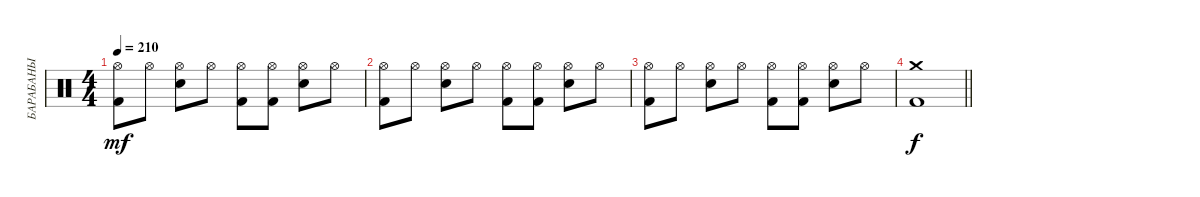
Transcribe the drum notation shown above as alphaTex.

\track ("БАРАБАНЫ" "БАРАБАНЫ") {instrument percussion}
\staff {score}
\articulation defaults
\ts (4 4)
\tempo 210
\clef neutral
\ks c
("Hi-Hat (open)" "Kick (hit) 2").8{dy mf} "Hi-Hat (open)".8 ("Hi-Hat (open)" "Snare (hit) 2").8 "Hi-Hat (open)".8 ("Hi-Hat (open)" "Kick (hit) 2").8 ("Hi-Hat (open)" "Kick (hit) 2").8 ("Hi-Hat (open)" "Snare (hit) 2").8 "Hi-Hat (open)".8 |
("Hi-Hat (open)" "Kick (hit) 2").8 "Hi-Hat (open)".8 ("Hi-Hat (open)" "Snare (hit) 2").8 "Hi-Hat (open)".8 ("Hi-Hat (open)" "Kick (hit) 2").8 ("Hi-Hat (open)" "Kick (hit) 2").8 ("Hi-Hat (open)" "Snare (hit) 2").8 "Hi-Hat (open)".8 |
("Hi-Hat (open)" "Kick (hit) 2").8 "Hi-Hat (open)".8 ("Hi-Hat (open)" "Snare (hit) 2").8 "Hi-Hat (open)".8 ("Hi-Hat (open)" "Kick (hit) 2").8 ("Hi-Hat (open)" "Kick (hit) 2").8 ("Hi-Hat (open)" "Snare (hit) 2").8 "Hi-Hat (open)".8 |
\barLineRight lightlight
("Crash medium (hit)" "Kick (hit) 2").1{dy f}
